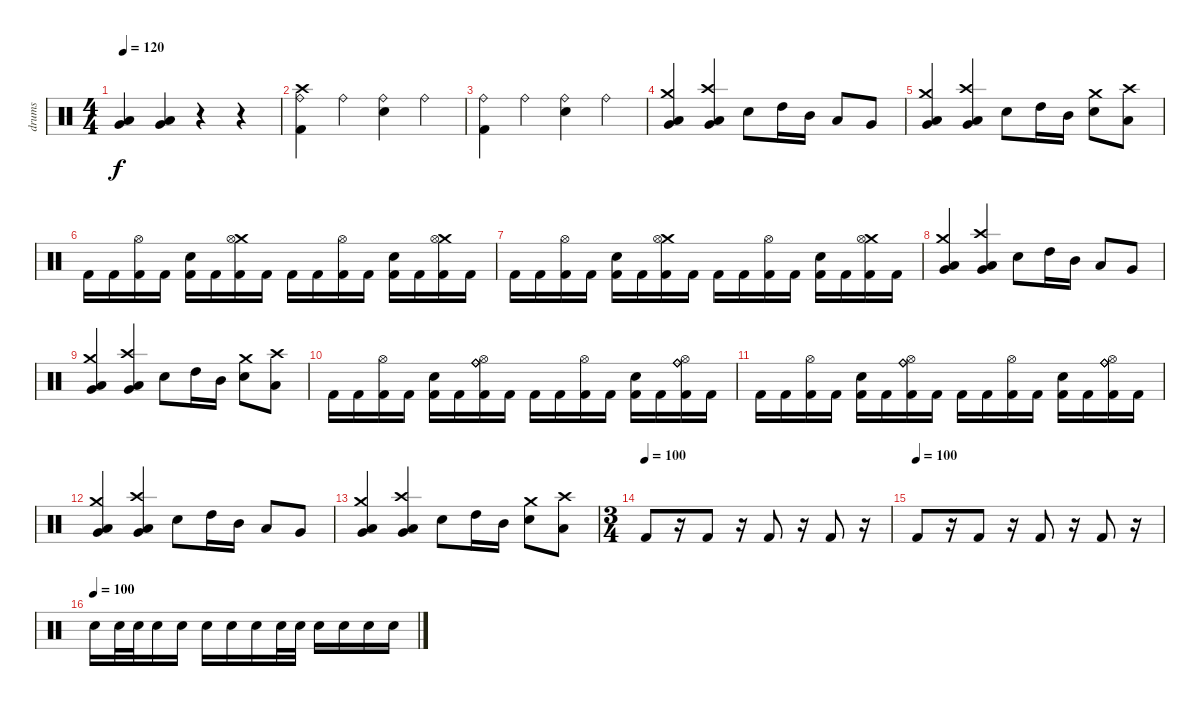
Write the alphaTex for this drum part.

\track ("drums" "drums") {instrument percussion}
\staff {score}
\articulation defaults
\ts (4 4)
\tempo 120
\clef neutral
\ks c
("Very Low Tom (hit)" "Low Floor Tom (hit)").4{dy f} ("Very Low Tom (hit)" "Low Floor Tom (hit)").4 r.4 r.4 |
("Crash high (hit)" "Ride (bell)" "Kick (hit) 2").4 "Ride (bell)".4 ("Ride (bell)" "Electric Snare (hit)").4 "Ride (bell)".4 |
("Ride (bell)" "Kick (hit) 2").4 "Ride (bell)".4 ("Ride (bell)" "Electric Snare (hit)").4 "Ride (bell)".4 |
("Crash medium (hit)" "Very Low Tom (hit)" "Low Tom (hit)").4 ("Crash high (hit)" "Very Low Tom (hit)" "Low Tom (hit)").4 "Electric Snare (hit)".8 "High Tom (hit)".16 "Mid Tom (hit)".16 "Low Tom (hit)".8 "Very Low Tom (hit)".8 |
("Crash medium (hit)" "Very Low Tom (hit)" "Low Tom (hit)").4 ("Crash high (hit)" "Very Low Tom (hit)" "Low Tom (hit)").4 "Electric Snare (hit)".8 "High Tom (hit)".16 "Mid Tom (hit)".16 ("Crash medium (hit)" "Electric Snare (hit)").8 ("Crash high (hit)" "Low Tom (hit)").8 |
"Kick (hit) 2".16 "Kick (hit) 2".16 ("Hi-Hat (open)" "Kick (hit) 2").16 "Kick (hit) 2".16 ("Electric Snare (hit)" "Kick (hit) 2").16 "Kick (hit) 2".16 ("Crash medium (hit)" "Hi-Hat (open)" "Kick (hit) 2").16 "Kick (hit) 2".16 "Kick (hit) 2".16 "Kick (hit) 2".16 ("Hi-Hat (open)" "Kick (hit) 2").16 "Kick (hit) 2".16 ("Electric Snare (hit)" "Kick (hit) 2").16 "Kick (hit) 2".16 ("Crash medium (hit)" "Hi-Hat (open)" "Kick (hit) 2").16 "Kick (hit) 2".16 |
"Kick (hit) 2".16 "Kick (hit) 2".16 ("Hi-Hat (open)" "Kick (hit) 2").16 "Kick (hit) 2".16 ("Electric Snare (hit)" "Kick (hit) 2").16 "Kick (hit) 2".16 ("Crash medium (hit)" "Hi-Hat (open)" "Kick (hit) 2").16 "Kick (hit) 2".16 "Kick (hit) 2".16 "Kick (hit) 2".16 ("Hi-Hat (open)" "Kick (hit) 2").16 "Kick (hit) 2".16 ("Electric Snare (hit)" "Kick (hit) 2").16 "Kick (hit) 2".16 ("Crash medium (hit)" "Hi-Hat (open)" "Kick (hit) 2").16 "Kick (hit) 2".16 |
("Crash medium (hit)" "Very Low Tom (hit)" "Low Tom (hit)").4 ("Crash high (hit)" "Very Low Tom (hit)" "Low Tom (hit)").4 "Electric Snare (hit)".8 "High Tom (hit)".16 "Mid Tom (hit)".16 "Low Tom (hit)".8 "Very Low Tom (hit)".8 |
("Crash medium (hit)" "Very Low Tom (hit)" "Low Tom (hit)").4 ("Crash high (hit)" "Very Low Tom (hit)" "Low Tom (hit)").4 "Electric Snare (hit)".8 "High Tom (hit)".16 "Mid Tom (hit)".16 ("Crash medium (hit)" "Electric Snare (hit)").8 ("Crash high (hit)" "Low Tom (hit)").8 |
"Kick (hit) 2".16 "Kick (hit) 2".16 ("Hi-Hat (open)" "Kick (hit) 2").16 "Kick (hit) 2".16 ("Electric Snare (hit)" "Kick (hit) 2").16 "Kick (hit) 2".16 ("Ride (bell)" "Ride (bell)" "Ride (bell)" "Hi-Hat (open)" "Kick (hit) 2").16 "Kick (hit) 2".16 "Kick (hit) 2".16 "Kick (hit) 2".16 ("Hi-Hat (open)" "Kick (hit) 2").16 "Kick (hit) 2".16 ("Electric Snare (hit)" "Kick (hit) 2").16 "Kick (hit) 2".16 ("Ride (bell)" "Ride (bell)" "Ride (bell)" "Hi-Hat (open)" "Kick (hit) 2").16 "Kick (hit) 2".16 |
"Kick (hit) 2".16 "Kick (hit) 2".16 ("Hi-Hat (open)" "Kick (hit) 2").16 "Kick (hit) 2".16 ("Electric Snare (hit)" "Kick (hit) 2").16 "Kick (hit) 2".16 ("Ride (bell)" "Ride (bell)" "Ride (bell)" "Hi-Hat (open)" "Kick (hit) 2").16 "Kick (hit) 2".16 "Kick (hit) 2".16 "Kick (hit) 2".16 ("Hi-Hat (open)" "Kick (hit) 2").16 "Kick (hit) 2".16 ("Electric Snare (hit)" "Kick (hit) 2").16 "Kick (hit) 2".16 ("Ride (bell)" "Ride (bell)" "Ride (bell)" "Hi-Hat (open)" "Kick (hit) 2").16 "Kick (hit) 2".16 |
("Crash medium (hit)" "Very Low Tom (hit)" "Low Tom (hit)").4 ("Crash high (hit)" "Very Low Tom (hit)" "Low Tom (hit)").4 "Electric Snare (hit)".8 "High Tom (hit)".16 "Mid Tom (hit)".16 "Low Tom (hit)".8 "Very Low Tom (hit)".8 |
("Crash medium (hit)" "Very Low Tom (hit)" "Low Tom (hit)").4 ("Crash high (hit)" "Very Low Tom (hit)" "Low Tom (hit)").4 "Electric Snare (hit)".8 "High Tom (hit)".16 "Mid Tom (hit)".16 ("Crash medium (hit)" "Electric Snare (hit)").8 ("Crash high (hit)" "Low Tom (hit)").8 |
\ts (3 4)
\tempo (100)
"Kick (hit) 2".8 r.16 "Kick (hit) 2".8 r.16 "Kick (hit) 2".8 r.16 "Kick (hit) 2".8 r.16 |
\tempo (100)
"Kick (hit) 2".8 r.16 "Kick (hit) 2".8 r.16 "Kick (hit) 2".8 r.16 "Kick (hit) 2".8 r.16 |
\tempo (100)
"Electric Snare (hit)".16{volume 5} "Electric Snare (hit)".32 "Electric Snare (hit)".32 "Electric Snare (hit)".16 "Electric Snare (hit)".16{volume 6} "Electric Snare (hit)".16 "Electric Snare (hit)".16 "Electric Snare (hit)".16 "Electric Snare (hit)".32{volume 8} "Electric Snare (hit)".32 "Electric Snare (hit)".16 "Electric Snare (hit)".16 "Electric Snare (hit)".16{volume 9} "Electric Snare (hit)".16
